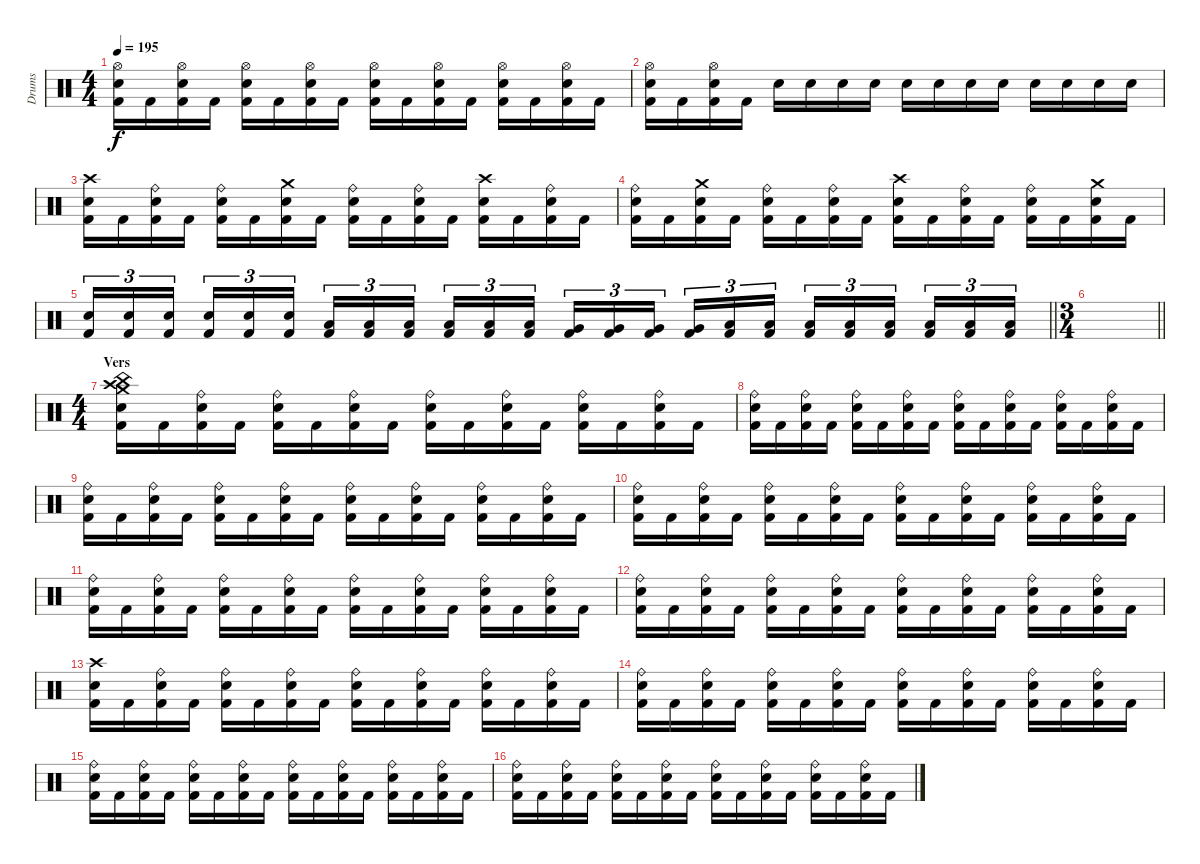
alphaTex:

\track ("Drums" "Drums") {instrument percussion}
\staff {score}
\articulation defaults
\ts (4 4)
\tempo 195
\clef neutral
\ks c
("Hi-Hat (open)" "Electric Snare (hit)" "Kick (hit) 2").16{dy f} "Kick (hit) 2".16 ("Hi-Hat (open)" "Electric Snare (hit)" "Kick (hit) 2").16 "Kick (hit) 2".16 ("Hi-Hat (open)" "Electric Snare (hit)" "Kick (hit) 2").16 "Kick (hit) 2".16 ("Hi-Hat (open)" "Electric Snare (hit)" "Kick (hit) 2").16 "Kick (hit) 2".16 ("Hi-Hat (open)" "Electric Snare (hit)" "Kick (hit) 2").16 "Kick (hit) 2".16 ("Hi-Hat (open)" "Electric Snare (hit)" "Kick (hit) 2").16 "Kick (hit) 2".16 ("Hi-Hat (open)" "Electric Snare (hit)" "Kick (hit) 2").16 "Kick (hit) 2".16 ("Hi-Hat (open)" "Electric Snare (hit)" "Kick (hit) 2").16 "Kick (hit) 2".16 |
("Hi-Hat (open)" "Electric Snare (hit)" "Kick (hit) 2").16 "Kick (hit) 2".16 ("Hi-Hat (open)" "Electric Snare (hit)" "Kick (hit) 2").16 "Kick (hit) 2".16 "Electric Snare (hit)".16 "Electric Snare (hit)".16 "Electric Snare (hit)".16 "Electric Snare (hit)".16 "Electric Snare (hit)".16 "Electric Snare (hit)".16 "Electric Snare (hit)".16 "Electric Snare (hit)".16 "Electric Snare (hit)".16 "Electric Snare (hit)".16 "Electric Snare (hit)".16 "Electric Snare (hit)".16 |
("Crash high (hit)" "Electric Snare (hit)" "Kick (hit) 2").16 "Kick (hit) 2".16 ("Ride (bell)" "Electric Snare (hit)" "Kick (hit) 2").16 "Kick (hit) 2".16 ("Ride (bell)" "Electric Snare (hit)" "Kick (hit) 2").16 "Kick (hit) 2".16 ("Crash medium (hit)" "Electric Snare (hit)" "Kick (hit) 2").16 "Kick (hit) 2".16 ("Ride (bell)" "Electric Snare (hit)" "Kick (hit) 2").16 "Kick (hit) 2".16 ("Ride (bell)" "Electric Snare (hit)" "Kick (hit) 2").16 "Kick (hit) 2".16 ("Crash high (hit)" "Electric Snare (hit)" "Kick (hit) 2").16 "Kick (hit) 2".16 ("Ride (bell)" "Electric Snare (hit)" "Kick (hit) 2").16 "Kick (hit) 2".16 |
("Ride (bell)" "Electric Snare (hit)" "Kick (hit) 2").16 "Kick (hit) 2".16 ("Crash medium (hit)" "Electric Snare (hit)" "Kick (hit) 2").16 "Kick (hit) 2".16 ("Ride (bell)" "Electric Snare (hit)" "Kick (hit) 2").16 "Kick (hit) 2".16 ("Ride (bell)" "Electric Snare (hit)" "Kick (hit) 2").16 "Kick (hit) 2".16 ("Crash high (hit)" "Electric Snare (hit)" "Kick (hit) 2").16 "Kick (hit) 2".16 ("Ride (bell)" "Electric Snare (hit)" "Kick (hit) 2").16 "Kick (hit) 2".16 ("Ride (bell)" "Electric Snare (hit)" "Kick (hit) 2").16 "Kick (hit) 2".16 ("Crash medium (hit)" "Electric Snare (hit)" "Kick (hit) 2").16 "Kick (hit) 2".16 |
\barLineRight lightlight
("Electric Snare (hit)" "Kick (hit) 2").16{tu (3 2)} ("Electric Snare (hit)" "Kick (hit) 2").16{tu (3 2)} ("Electric Snare (hit)" "Kick (hit) 2").16{tu (3 2) beam splitsecondary} ("Electric Snare (hit)" "Kick (hit) 2").16{tu (3 2)} ("Electric Snare (hit)" "Kick (hit) 2").16{tu (3 2)} ("Electric Snare (hit)" "Kick (hit) 2").16{tu (3 2)} ("Low Floor Tom (hit)" "Kick (hit) 2").16{tu (3 2)} ("Low Floor Tom (hit)" "Kick (hit) 2").16{tu (3 2)} ("Low Floor Tom (hit)" "Kick (hit) 2").16{tu (3 2) beam splitsecondary} ("Low Floor Tom (hit)" "Kick (hit) 2").16{tu (3 2)} ("Low Floor Tom (hit)" "Kick (hit) 2").16{tu (3 2)} ("Low Floor Tom (hit)" "Kick (hit) 2").16{tu (3 2)} ("Very Low Tom (hit)" "Kick (hit) 2").16{tu (3 2)} ("Very Low Tom (hit)" "Kick (hit) 2").16{tu (3 2)} ("Very Low Tom (hit)" "Kick (hit) 2").16{tu (3 2) beam splitsecondary} ("Very Low Tom (hit)" "Kick (hit) 2").16{tu (3 2)} ("Low Floor Tom (hit)" "Kick (hit) 2").16{tu (3 2)} ("Low Floor Tom (hit)" "Kick (hit) 2").16{tu (3 2)} ("Low Floor Tom (hit)" "Kick (hit) 2").16{tu (3 2)} ("Low Floor Tom (hit)" "Kick (hit) 2").16{tu (3 2)} ("Low Floor Tom (hit)" "Kick (hit) 2").16{tu (3 2) beam splitsecondary} ("Low Floor Tom (hit)" "Kick (hit) 2").16{tu (3 2)} ("Low Floor Tom (hit)" "Kick (hit) 2").16{tu (3 2)} ("Low Floor Tom (hit)" "Kick (hit) 2").16{tu (3 2)} |
\ts (3 4)
\barLineRight lightlight
|
\ts (4 4)
\section ("" "Vers")
("China (hit)" "Crash high (hit)" "Crash medium (hit)" "Electric Snare (hit)" "Kick (hit) 2").16 "Kick (hit) 2".16 ("Ride (bell)" "Electric Snare (hit)" "Kick (hit) 2").16 "Kick (hit) 2".16 ("Ride (bell)" "Electric Snare (hit)" "Kick (hit) 2").16 "Kick (hit) 2".16 ("Ride (bell)" "Electric Snare (hit)" "Kick (hit) 2").16 "Kick (hit) 2".16 ("Ride (bell)" "Electric Snare (hit)" "Kick (hit) 2").16 "Kick (hit) 2".16 ("Ride (bell)" "Electric Snare (hit)" "Kick (hit) 2").16 "Kick (hit) 2".16 ("Ride (bell)" "Electric Snare (hit)" "Kick (hit) 2").16 "Kick (hit) 2".16 ("Ride (bell)" "Electric Snare (hit)" "Kick (hit) 2").16 "Kick (hit) 2".16 |
("Ride (bell)" "Electric Snare (hit)" "Kick (hit) 2").16 "Kick (hit) 2".16 ("Ride (bell)" "Electric Snare (hit)" "Kick (hit) 2").16 "Kick (hit) 2".16 ("Ride (bell)" "Electric Snare (hit)" "Kick (hit) 2").16 "Kick (hit) 2".16 ("Ride (bell)" "Electric Snare (hit)" "Kick (hit) 2").16 "Kick (hit) 2".16 ("Ride (bell)" "Electric Snare (hit)" "Kick (hit) 2").16 "Kick (hit) 2".16 ("Ride (bell)" "Electric Snare (hit)" "Kick (hit) 2").16 "Kick (hit) 2".16 ("Ride (bell)" "Electric Snare (hit)" "Kick (hit) 2").16 "Kick (hit) 2".16 ("Ride (bell)" "Electric Snare (hit)" "Kick (hit) 2").16 "Kick (hit) 2".16 |
("Ride (bell)" "Electric Snare (hit)" "Kick (hit) 2").16 "Kick (hit) 2".16 ("Ride (bell)" "Electric Snare (hit)" "Kick (hit) 2").16 "Kick (hit) 2".16 ("Ride (bell)" "Electric Snare (hit)" "Kick (hit) 2").16 "Kick (hit) 2".16 ("Ride (bell)" "Electric Snare (hit)" "Kick (hit) 2").16 "Kick (hit) 2".16 ("Ride (bell)" "Electric Snare (hit)" "Kick (hit) 2").16 "Kick (hit) 2".16 ("Ride (bell)" "Electric Snare (hit)" "Kick (hit) 2").16 "Kick (hit) 2".16 ("Ride (bell)" "Electric Snare (hit)" "Kick (hit) 2").16 "Kick (hit) 2".16 ("Ride (bell)" "Electric Snare (hit)" "Kick (hit) 2").16 "Kick (hit) 2".16 |
("Ride (bell)" "Electric Snare (hit)" "Kick (hit) 2").16 "Kick (hit) 2".16 ("Ride (bell)" "Electric Snare (hit)" "Kick (hit) 2").16 "Kick (hit) 2".16 ("Ride (bell)" "Electric Snare (hit)" "Kick (hit) 2").16 "Kick (hit) 2".16 ("Ride (bell)" "Electric Snare (hit)" "Kick (hit) 2").16 "Kick (hit) 2".16 ("Ride (bell)" "Electric Snare (hit)" "Kick (hit) 2").16 "Kick (hit) 2".16 ("Ride (bell)" "Electric Snare (hit)" "Kick (hit) 2").16 "Kick (hit) 2".16 ("Ride (bell)" "Electric Snare (hit)" "Kick (hit) 2").16 "Kick (hit) 2".16 ("Ride (bell)" "Electric Snare (hit)" "Kick (hit) 2").16 "Kick (hit) 2".16 |
("Ride (bell)" "Electric Snare (hit)" "Kick (hit) 2").16 "Kick (hit) 2".16 ("Ride (bell)" "Electric Snare (hit)" "Kick (hit) 2").16 "Kick (hit) 2".16 ("Ride (bell)" "Electric Snare (hit)" "Kick (hit) 2").16 "Kick (hit) 2".16 ("Ride (bell)" "Electric Snare (hit)" "Kick (hit) 2").16 "Kick (hit) 2".16 ("Ride (bell)" "Electric Snare (hit)" "Kick (hit) 2").16 "Kick (hit) 2".16 ("Ride (bell)" "Electric Snare (hit)" "Kick (hit) 2").16 "Kick (hit) 2".16 ("Ride (bell)" "Electric Snare (hit)" "Kick (hit) 2").16 "Kick (hit) 2".16 ("Ride (bell)" "Electric Snare (hit)" "Kick (hit) 2").16 "Kick (hit) 2".16 |
("Ride (bell)" "Electric Snare (hit)" "Kick (hit) 2").16 "Kick (hit) 2".16 ("Ride (bell)" "Electric Snare (hit)" "Kick (hit) 2").16 "Kick (hit) 2".16 ("Ride (bell)" "Electric Snare (hit)" "Kick (hit) 2").16 "Kick (hit) 2".16 ("Ride (bell)" "Electric Snare (hit)" "Kick (hit) 2").16 "Kick (hit) 2".16 ("Ride (bell)" "Electric Snare (hit)" "Kick (hit) 2").16 "Kick (hit) 2".16 ("Ride (bell)" "Electric Snare (hit)" "Kick (hit) 2").16 "Kick (hit) 2".16 ("Ride (bell)" "Electric Snare (hit)" "Kick (hit) 2").16 "Kick (hit) 2".16 ("Ride (bell)" "Electric Snare (hit)" "Kick (hit) 2").16 "Kick (hit) 2".16 |
("Crash high (hit)" "Electric Snare (hit)" "Kick (hit) 2").16 "Kick (hit) 2".16 ("Ride (bell)" "Electric Snare (hit)" "Kick (hit) 2").16 "Kick (hit) 2".16 ("Ride (bell)" "Electric Snare (hit)" "Kick (hit) 2").16 "Kick (hit) 2".16 ("Ride (bell)" "Electric Snare (hit)" "Kick (hit) 2").16 "Kick (hit) 2".16 ("Ride (bell)" "Electric Snare (hit)" "Kick (hit) 2").16 "Kick (hit) 2".16 ("Ride (bell)" "Electric Snare (hit)" "Kick (hit) 2").16 "Kick (hit) 2".16 ("Ride (bell)" "Electric Snare (hit)" "Kick (hit) 2").16 "Kick (hit) 2".16 ("Ride (bell)" "Electric Snare (hit)" "Kick (hit) 2").16 "Kick (hit) 2".16 |
("Ride (bell)" "Electric Snare (hit)" "Kick (hit) 2").16 "Kick (hit) 2".16 ("Ride (bell)" "Electric Snare (hit)" "Kick (hit) 2").16 "Kick (hit) 2".16 ("Ride (bell)" "Electric Snare (hit)" "Kick (hit) 2").16 "Kick (hit) 2".16 ("Ride (bell)" "Electric Snare (hit)" "Kick (hit) 2").16 "Kick (hit) 2".16 ("Ride (bell)" "Electric Snare (hit)" "Kick (hit) 2").16 "Kick (hit) 2".16 ("Ride (bell)" "Electric Snare (hit)" "Kick (hit) 2").16 "Kick (hit) 2".16 ("Ride (bell)" "Electric Snare (hit)" "Kick (hit) 2").16 "Kick (hit) 2".16 ("Ride (bell)" "Electric Snare (hit)" "Kick (hit) 2").16 "Kick (hit) 2".16 |
("Ride (bell)" "Electric Snare (hit)" "Kick (hit) 2").16 "Kick (hit) 2".16 ("Ride (bell)" "Electric Snare (hit)" "Kick (hit) 2").16 "Kick (hit) 2".16 ("Ride (bell)" "Electric Snare (hit)" "Kick (hit) 2").16 "Kick (hit) 2".16 ("Ride (bell)" "Electric Snare (hit)" "Kick (hit) 2").16 "Kick (hit) 2".16 ("Ride (bell)" "Electric Snare (hit)" "Kick (hit) 2").16 "Kick (hit) 2".16 ("Ride (bell)" "Electric Snare (hit)" "Kick (hit) 2").16 "Kick (hit) 2".16 ("Ride (bell)" "Electric Snare (hit)" "Kick (hit) 2").16 "Kick (hit) 2".16 ("Ride (bell)" "Electric Snare (hit)" "Kick (hit) 2").16 "Kick (hit) 2".16 |
("Ride (bell)" "Electric Snare (hit)" "Kick (hit) 2").16 "Kick (hit) 2".16 ("Ride (bell)" "Electric Snare (hit)" "Kick (hit) 2").16 "Kick (hit) 2".16 ("Ride (bell)" "Electric Snare (hit)" "Kick (hit) 2").16 "Kick (hit) 2".16 ("Ride (bell)" "Electric Snare (hit)" "Kick (hit) 2").16 "Kick (hit) 2".16 ("Ride (bell)" "Electric Snare (hit)" "Kick (hit) 2").16 "Kick (hit) 2".16 ("Ride (bell)" "Electric Snare (hit)" "Kick (hit) 2").16 "Kick (hit) 2".16 ("Ride (bell)" "Electric Snare (hit)" "Kick (hit) 2").16 "Kick (hit) 2".16 ("Ride (bell)" "Electric Snare (hit)" "Kick (hit) 2").16 "Kick (hit) 2".16
